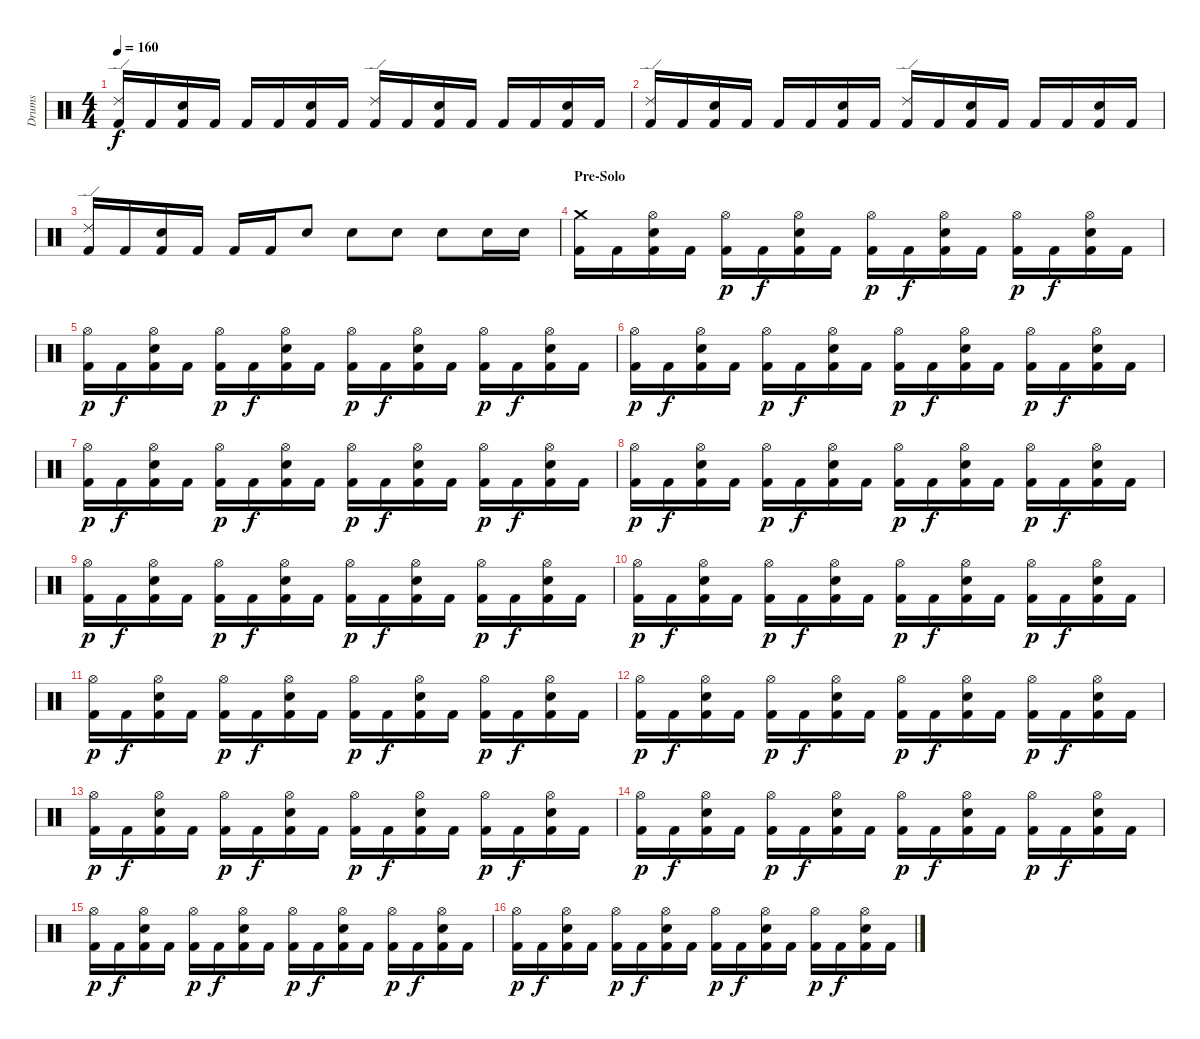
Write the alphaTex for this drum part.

\track ("Drums" "Drums") {instrument percussion}
\staff {score}
\articulation defaults
\ts (4 4)
\tempo 160
\clef neutral
\ks c
("Ride (edge) 2" "Kick (hit) 2").16{dy f} "Kick (hit) 2".16 ("Electric Snare (hit)" "Kick (hit) 2").16 "Kick (hit) 2".16 "Kick (hit) 2".16 "Kick (hit) 2".16 ("Electric Snare (hit)" "Kick (hit) 2").16 "Kick (hit) 2".16 ("Ride (edge) 2" "Kick (hit) 2").16 "Kick (hit) 2".16 ("Electric Snare (hit)" "Kick (hit) 2").16 "Kick (hit) 2".16 "Kick (hit) 2".16 "Kick (hit) 2".16 ("Electric Snare (hit)" "Kick (hit) 2").16 "Kick (hit) 2".16 |
("Ride (edge) 2" "Kick (hit) 2").16 "Kick (hit) 2".16 ("Electric Snare (hit)" "Kick (hit) 2").16 "Kick (hit) 2".16 "Kick (hit) 2".16 "Kick (hit) 2".16 ("Electric Snare (hit)" "Kick (hit) 2").16 "Kick (hit) 2".16 ("Ride (edge) 2" "Kick (hit) 2").16 "Kick (hit) 2".16 ("Electric Snare (hit)" "Kick (hit) 2").16 "Kick (hit) 2".16 "Kick (hit) 2".16 "Kick (hit) 2".16 ("Electric Snare (hit)" "Kick (hit) 2").16 "Kick (hit) 2".16 |
("Ride (edge) 2" "Kick (hit) 2").16 "Kick (hit) 2".16 ("Electric Snare (hit)" "Kick (hit) 2").16 "Kick (hit) 2".16 "Kick (hit) 2".16 "Kick (hit) 2".16 "Electric Snare (hit)".8 "Electric Snare (hit)".8 "Electric Snare (hit)".8 "Electric Snare (hit)".8 "Electric Snare (hit)".16 "Electric Snare (hit)".16 |
\section ("" "Pre-Solo")
("Crash medium (hit)" "Kick (hit) 2").16 "Kick (hit) 2".16 ("Hi-Hat (open)" "Electric Snare (hit)" "Kick (hit) 2").16 "Kick (hit) 2".16 ("Hi-Hat (open)" "Kick (hit) 2").16{dy p} "Kick (hit) 2".16{dy f} ("Hi-Hat (open)" "Electric Snare (hit)" "Kick (hit) 2").16 "Kick (hit) 2".16 ("Hi-Hat (open)" "Kick (hit) 2").16{dy p} "Kick (hit) 2".16{dy f} ("Hi-Hat (open)" "Electric Snare (hit)" "Kick (hit) 2").16 "Kick (hit) 2".16 ("Hi-Hat (open)" "Kick (hit) 2").16{dy p} "Kick (hit) 2".16{dy f} ("Hi-Hat (open)" "Electric Snare (hit)" "Kick (hit) 2").16 "Kick (hit) 2".16 |
("Hi-Hat (open)" "Kick (hit) 2").16{dy p} "Kick (hit) 2".16{dy f} ("Hi-Hat (open)" "Electric Snare (hit)" "Kick (hit) 2").16 "Kick (hit) 2".16 ("Hi-Hat (open)" "Kick (hit) 2").16{dy p} "Kick (hit) 2".16{dy f} ("Hi-Hat (open)" "Electric Snare (hit)" "Kick (hit) 2").16 "Kick (hit) 2".16 ("Hi-Hat (open)" "Kick (hit) 2").16{dy p} "Kick (hit) 2".16{dy f} ("Hi-Hat (open)" "Electric Snare (hit)" "Kick (hit) 2").16 "Kick (hit) 2".16 ("Hi-Hat (open)" "Kick (hit) 2").16{dy p} "Kick (hit) 2".16{dy f} ("Hi-Hat (open)" "Electric Snare (hit)" "Kick (hit) 2").16 "Kick (hit) 2".16 |
("Hi-Hat (open)" "Kick (hit) 2").16{dy p} "Kick (hit) 2".16{dy f} ("Hi-Hat (open)" "Electric Snare (hit)" "Kick (hit) 2").16 "Kick (hit) 2".16 ("Hi-Hat (open)" "Kick (hit) 2").16{dy p} "Kick (hit) 2".16{dy f} ("Hi-Hat (open)" "Electric Snare (hit)" "Kick (hit) 2").16 "Kick (hit) 2".16 ("Hi-Hat (open)" "Kick (hit) 2").16{dy p} "Kick (hit) 2".16{dy f} ("Hi-Hat (open)" "Electric Snare (hit)" "Kick (hit) 2").16 "Kick (hit) 2".16 ("Hi-Hat (open)" "Kick (hit) 2").16{dy p} "Kick (hit) 2".16{dy f} ("Hi-Hat (open)" "Electric Snare (hit)" "Kick (hit) 2").16 "Kick (hit) 2".16 |
("Hi-Hat (open)" "Kick (hit) 2").16{dy p} "Kick (hit) 2".16{dy f} ("Hi-Hat (open)" "Electric Snare (hit)" "Kick (hit) 2").16 "Kick (hit) 2".16 ("Hi-Hat (open)" "Kick (hit) 2").16{dy p} "Kick (hit) 2".16{dy f} ("Hi-Hat (open)" "Electric Snare (hit)" "Kick (hit) 2").16 "Kick (hit) 2".16 ("Hi-Hat (open)" "Kick (hit) 2").16{dy p} "Kick (hit) 2".16{dy f} ("Hi-Hat (open)" "Electric Snare (hit)" "Kick (hit) 2").16 "Kick (hit) 2".16 ("Hi-Hat (open)" "Kick (hit) 2").16{dy p} "Kick (hit) 2".16{dy f} ("Hi-Hat (open)" "Electric Snare (hit)" "Kick (hit) 2").16 "Kick (hit) 2".16 |
("Hi-Hat (open)" "Kick (hit) 2").16{dy p} "Kick (hit) 2".16{dy f} ("Hi-Hat (open)" "Electric Snare (hit)" "Kick (hit) 2").16 "Kick (hit) 2".16 ("Hi-Hat (open)" "Kick (hit) 2").16{dy p} "Kick (hit) 2".16{dy f} ("Hi-Hat (open)" "Electric Snare (hit)" "Kick (hit) 2").16 "Kick (hit) 2".16 ("Hi-Hat (open)" "Kick (hit) 2").16{dy p} "Kick (hit) 2".16{dy f} ("Hi-Hat (open)" "Electric Snare (hit)" "Kick (hit) 2").16 "Kick (hit) 2".16 ("Hi-Hat (open)" "Kick (hit) 2").16{dy p} "Kick (hit) 2".16{dy f} ("Hi-Hat (open)" "Electric Snare (hit)" "Kick (hit) 2").16 "Kick (hit) 2".16 |
("Hi-Hat (open)" "Kick (hit) 2").16{dy p} "Kick (hit) 2".16{dy f} ("Hi-Hat (open)" "Electric Snare (hit)" "Kick (hit) 2").16 "Kick (hit) 2".16 ("Hi-Hat (open)" "Kick (hit) 2").16{dy p} "Kick (hit) 2".16{dy f} ("Hi-Hat (open)" "Electric Snare (hit)" "Kick (hit) 2").16 "Kick (hit) 2".16 ("Hi-Hat (open)" "Kick (hit) 2").16{dy p} "Kick (hit) 2".16{dy f} ("Hi-Hat (open)" "Electric Snare (hit)" "Kick (hit) 2").16 "Kick (hit) 2".16 ("Hi-Hat (open)" "Kick (hit) 2").16{dy p} "Kick (hit) 2".16{dy f} ("Hi-Hat (open)" "Electric Snare (hit)" "Kick (hit) 2").16 "Kick (hit) 2".16 |
("Hi-Hat (open)" "Kick (hit) 2").16{dy p} "Kick (hit) 2".16{dy f} ("Hi-Hat (open)" "Electric Snare (hit)" "Kick (hit) 2").16 "Kick (hit) 2".16 ("Hi-Hat (open)" "Kick (hit) 2").16{dy p} "Kick (hit) 2".16{dy f} ("Hi-Hat (open)" "Electric Snare (hit)" "Kick (hit) 2").16 "Kick (hit) 2".16 ("Hi-Hat (open)" "Kick (hit) 2").16{dy p} "Kick (hit) 2".16{dy f} ("Hi-Hat (open)" "Electric Snare (hit)" "Kick (hit) 2").16 "Kick (hit) 2".16 ("Hi-Hat (open)" "Kick (hit) 2").16{dy p} "Kick (hit) 2".16{dy f} ("Hi-Hat (open)" "Electric Snare (hit)" "Kick (hit) 2").16 "Kick (hit) 2".16 |
("Hi-Hat (open)" "Kick (hit) 2").16{dy p} "Kick (hit) 2".16{dy f} ("Hi-Hat (open)" "Electric Snare (hit)" "Kick (hit) 2").16 "Kick (hit) 2".16 ("Hi-Hat (open)" "Kick (hit) 2").16{dy p} "Kick (hit) 2".16{dy f} ("Hi-Hat (open)" "Electric Snare (hit)" "Kick (hit) 2").16 "Kick (hit) 2".16 ("Hi-Hat (open)" "Kick (hit) 2").16{dy p} "Kick (hit) 2".16{dy f} ("Hi-Hat (open)" "Electric Snare (hit)" "Kick (hit) 2").16 "Kick (hit) 2".16 ("Hi-Hat (open)" "Kick (hit) 2").16{dy p} "Kick (hit) 2".16{dy f} ("Hi-Hat (open)" "Electric Snare (hit)" "Kick (hit) 2").16 "Kick (hit) 2".16 |
("Hi-Hat (open)" "Kick (hit) 2").16{dy p} "Kick (hit) 2".16{dy f} ("Hi-Hat (open)" "Electric Snare (hit)" "Kick (hit) 2").16 "Kick (hit) 2".16 ("Hi-Hat (open)" "Kick (hit) 2").16{dy p} "Kick (hit) 2".16{dy f} ("Hi-Hat (open)" "Electric Snare (hit)" "Kick (hit) 2").16 "Kick (hit) 2".16 ("Hi-Hat (open)" "Kick (hit) 2").16{dy p} "Kick (hit) 2".16{dy f} ("Hi-Hat (open)" "Electric Snare (hit)" "Kick (hit) 2").16 "Kick (hit) 2".16 ("Hi-Hat (open)" "Kick (hit) 2").16{dy p} "Kick (hit) 2".16{dy f} ("Hi-Hat (open)" "Electric Snare (hit)" "Kick (hit) 2").16 "Kick (hit) 2".16 |
("Hi-Hat (open)" "Kick (hit) 2").16{dy p} "Kick (hit) 2".16{dy f} ("Hi-Hat (open)" "Electric Snare (hit)" "Kick (hit) 2").16 "Kick (hit) 2".16 ("Hi-Hat (open)" "Kick (hit) 2").16{dy p} "Kick (hit) 2".16{dy f} ("Hi-Hat (open)" "Electric Snare (hit)" "Kick (hit) 2").16 "Kick (hit) 2".16 ("Hi-Hat (open)" "Kick (hit) 2").16{dy p} "Kick (hit) 2".16{dy f} ("Hi-Hat (open)" "Electric Snare (hit)" "Kick (hit) 2").16 "Kick (hit) 2".16 ("Hi-Hat (open)" "Kick (hit) 2").16{dy p} "Kick (hit) 2".16{dy f} ("Hi-Hat (open)" "Electric Snare (hit)" "Kick (hit) 2").16 "Kick (hit) 2".16 |
("Hi-Hat (open)" "Kick (hit) 2").16{dy p} "Kick (hit) 2".16{dy f} ("Hi-Hat (open)" "Electric Snare (hit)" "Kick (hit) 2").16 "Kick (hit) 2".16 ("Hi-Hat (open)" "Kick (hit) 2").16{dy p} "Kick (hit) 2".16{dy f} ("Hi-Hat (open)" "Electric Snare (hit)" "Kick (hit) 2").16 "Kick (hit) 2".16 ("Hi-Hat (open)" "Kick (hit) 2").16{dy p} "Kick (hit) 2".16{dy f} ("Hi-Hat (open)" "Electric Snare (hit)" "Kick (hit) 2").16 "Kick (hit) 2".16 ("Hi-Hat (open)" "Kick (hit) 2").16{dy p} "Kick (hit) 2".16{dy f} ("Hi-Hat (open)" "Electric Snare (hit)" "Kick (hit) 2").16 "Kick (hit) 2".16 |
("Hi-Hat (open)" "Kick (hit) 2").16{dy p} "Kick (hit) 2".16{dy f} ("Hi-Hat (open)" "Electric Snare (hit)" "Kick (hit) 2").16 "Kick (hit) 2".16 ("Hi-Hat (open)" "Kick (hit) 2").16{dy p} "Kick (hit) 2".16{dy f} ("Hi-Hat (open)" "Electric Snare (hit)" "Kick (hit) 2").16 "Kick (hit) 2".16 ("Hi-Hat (open)" "Kick (hit) 2").16{dy p} "Kick (hit) 2".16{dy f} ("Hi-Hat (open)" "Electric Snare (hit)" "Kick (hit) 2").16 "Kick (hit) 2".16 ("Hi-Hat (open)" "Kick (hit) 2").16{dy p} "Kick (hit) 2".16{dy f} ("Hi-Hat (open)" "Electric Snare (hit)" "Kick (hit) 2").16 "Kick (hit) 2".16 |
("Hi-Hat (open)" "Kick (hit) 2").16{dy p} "Kick (hit) 2".16{dy f} ("Hi-Hat (open)" "Electric Snare (hit)" "Kick (hit) 2").16 "Kick (hit) 2".16 ("Hi-Hat (open)" "Kick (hit) 2").16{dy p} "Kick (hit) 2".16{dy f} ("Hi-Hat (open)" "Electric Snare (hit)" "Kick (hit) 2").16 "Kick (hit) 2".16 ("Hi-Hat (open)" "Kick (hit) 2").16{dy p} "Kick (hit) 2".16{dy f} ("Hi-Hat (open)" "Electric Snare (hit)" "Kick (hit) 2").16 "Kick (hit) 2".16 ("Hi-Hat (open)" "Kick (hit) 2").16{dy p} "Kick (hit) 2".16{dy f} ("Hi-Hat (open)" "Electric Snare (hit)" "Kick (hit) 2").16 "Kick (hit) 2".16
